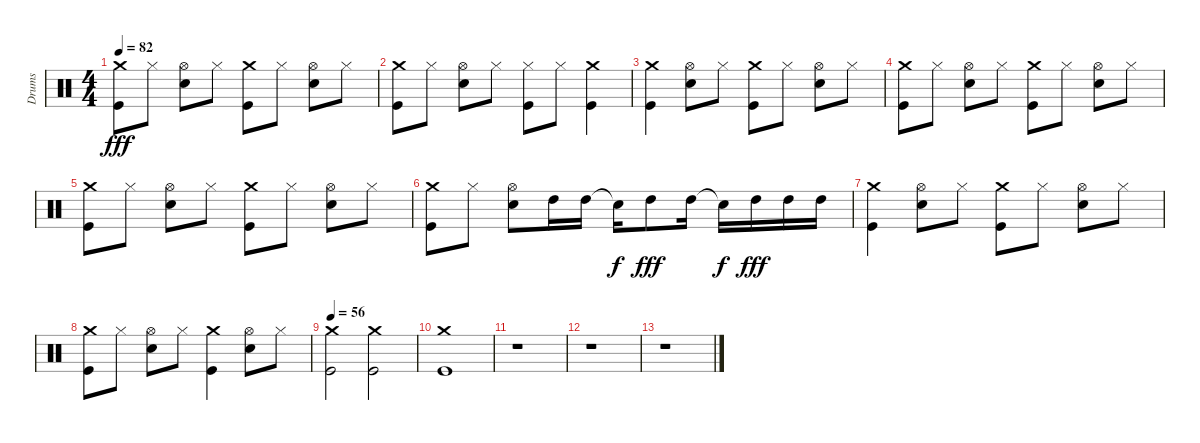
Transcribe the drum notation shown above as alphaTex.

\track ("Drums" "Drums") {instrument percussion}
\staff {score}
\articulation defaults
\ts (4 4)
\tempo 82
\clef neutral
\ks c
("Crash medium (hit)" "Kick (hit)").8{dy fff} "Hi-Hat (closed)".8 ("Hi-Hat (open)" "Snare (hit) 2").8 "Hi-Hat (closed)".8 ("Crash medium (hit)" "Kick (hit)").8 "Hi-Hat (closed)".8 ("Hi-Hat (open)" "Snare (hit) 2").8 "Hi-Hat (closed)".8 |
("Crash medium (hit)" "Kick (hit)").8 "Hi-Hat (closed)".8 ("Hi-Hat (open)" "Snare (hit) 2").8 "Hi-Hat (closed)".8 ("Hi-Hat (closed)" "Kick (hit)").8 "Hi-Hat (closed)".8 ("Crash medium (hit)" "Kick (hit)").4 |
("Crash medium (hit)" "Kick (hit)").4 ("Hi-Hat (open)" "Snare (hit) 2").8 "Hi-Hat (closed)".8 ("Crash medium (hit)" "Kick (hit)").8 "Hi-Hat (closed)".8 ("Hi-Hat (open)" "Snare (hit) 2").8 "Hi-Hat (closed)".8 |
("Crash medium (hit)" "Kick (hit)").8 "Hi-Hat (closed)".8 ("Hi-Hat (open)" "Snare (hit) 2").8 "Hi-Hat (closed)".8 ("Crash medium (hit)" "Kick (hit)").8 "Hi-Hat (closed)".8 ("Hi-Hat (open)" "Snare (hit) 2").8 "Hi-Hat (closed)".8 |
("Crash medium (hit)" "Kick (hit)").8 "Hi-Hat (closed)".8 ("Hi-Hat (open)" "Snare (hit) 2").8 "Hi-Hat (closed)".8 ("Crash medium (hit)" "Kick (hit)").8 "Hi-Hat (closed)".8 ("Hi-Hat (open)" "Snare (hit) 2").8 "Hi-Hat (closed)".8 |
("Crash medium (hit)" "Kick (hit)").8 "Hi-Hat (closed)".8 ("Hi-Hat (open)" "Snare (hit) 2").8 "High Tom (hit)".16 "High Tom (hit)".16 "Snare (hit)"{t}.16{dy f} "High Tom (hit)".8{dy fff} "High Tom (hit)".16 "Snare (hit)"{t}.16{dy f} "High Tom (hit)".16{dy fff} "High Tom (hit)".16 "High Tom (hit)".16 |
("Crash medium (hit)" "Kick (hit)").4 ("Hi-Hat (open)" "Snare (hit) 2").8 "Hi-Hat (closed)".8 ("Crash medium (hit)" "Kick (hit)").8 "Hi-Hat (closed)".8 ("Hi-Hat (open)" "Snare (hit) 2").8 "Hi-Hat (closed)".8 |
("Crash medium (hit)" "Kick (hit)").8 "Hi-Hat (closed)".8 ("Hi-Hat (open)" "Snare (hit) 2").8 "Hi-Hat (closed)".8 ("Crash medium (hit)" "Kick (hit)").4 ("Hi-Hat (open)" "Snare (hit) 2").8 "Hi-Hat (closed)".8 |
\tempo 56
("Crash medium (hit)" "Kick (hit)").2 ("Crash medium (hit)" "Kick (hit)").2 |
("Crash medium (hit)" "Kick (hit)").1 |
r.1 |
r.1 |
r.1
